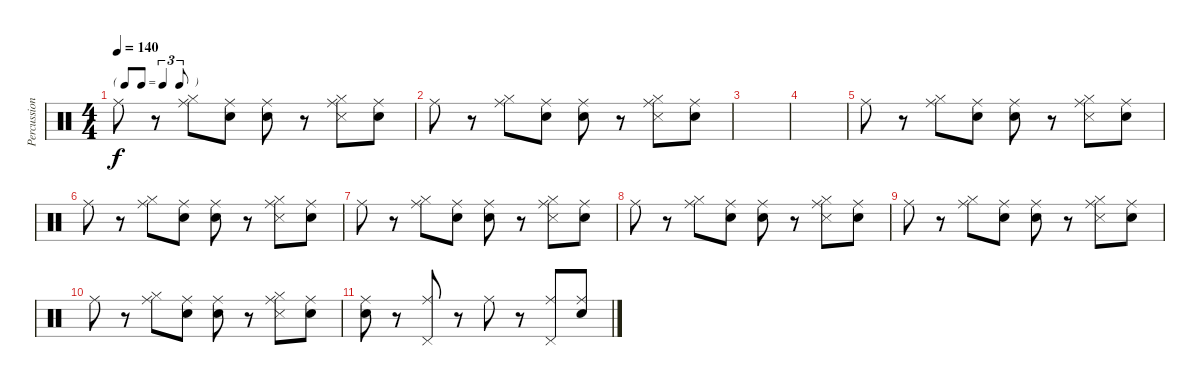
\track ("Percussions" "Percussion") {instrument percussion}
\staff {score}
\articulation defaults
\ts (4 4)
\tf triplet8th
\tempo 140
\clef neutral
\ks c "Ride (middle)".8{dy f}
r.8 ("Hi-Hat (closed)" "Ride (middle)").8 ("Snare (hit)" "Ride (middle)").8 ("Snare (hit)" "Ride (middle)").8 r.8 ("Hi-Hat (closed)" "Snare (side stick) 3" "Ride (middle)").8 ("Snare (hit)" "Ride (middle)").8 |
"Ride (middle)".8 r.8 ("Hi-Hat (closed)" "Ride (middle)").8 ("Snare (hit)" "Ride (middle)").8 ("Snare (hit)" "Ride (middle)").8 r.8 ("Hi-Hat (closed)" "Snare (side stick) 3" "Ride (middle)").8 ("Snare (hit)" "Ride (middle)").8 |
|
|
"Ride (middle)".8 r.8 ("Hi-Hat (closed)" "Ride (middle)").8 ("Snare (hit)" "Ride (middle)").8 ("Snare (hit)" "Ride (middle)").8 r.8 ("Hi-Hat (closed)" "Snare (side stick) 3" "Ride (middle)").8 ("Snare (hit)" "Ride (middle)").8 |
"Ride (middle)".8 r.8 ("Hi-Hat (closed)" "Ride (middle)").8 ("Snare (hit)" "Ride (middle)").8 ("Snare (hit)" "Ride (middle)").8 r.8 ("Hi-Hat (closed)" "Snare (side stick) 3" "Ride (middle)").8 ("Snare (hit)" "Ride (middle)").8 |
"Ride (middle)".8 r.8 ("Hi-Hat (closed)" "Ride (middle)").8 ("Snare (hit)" "Ride (middle)").8 ("Snare (hit)" "Ride (middle)").8 r.8 ("Hi-Hat (closed)" "Snare (side stick) 3" "Ride (middle)").8 ("Snare (hit)" "Ride (middle)").8 |
"Ride (middle)".8 r.8 ("Hi-Hat (closed)" "Ride (middle)").8 ("Snare (hit)" "Ride (middle)").8 ("Snare (hit)" "Ride (middle)").8 r.8 ("Hi-Hat (closed)" "Snare (side stick) 3" "Ride (middle)").8 ("Snare (hit)" "Ride (middle)").8 |
"Ride (middle)".8 r.8 ("Hi-Hat (closed)" "Ride (middle)").8 ("Snare (hit)" "Ride (middle)").8 ("Snare (hit)" "Ride (middle)").8 r.8 ("Hi-Hat (closed)" "Snare (side stick) 3" "Ride (middle)").8 ("Snare (hit)" "Ride (middle)").8 |
"Ride (middle)".8 r.8 ("Hi-Hat (closed)" "Ride (middle)").8 ("Snare (hit)" "Ride (middle)").8 ("Snare (hit)" "Ride (middle)").8 r.8 ("Hi-Hat (closed)" "Snare (side stick) 3" "Ride (middle)").8 ("Snare (hit)" "Ride (middle)").8 |
("Snare (hit)" "Ride (middle)").8 r.8 ("Pedal Hi-Hat (hit)" "Ride (middle)").8 r.8 "Ride (middle)".8 r.8 ("Pedal Hi-Hat (hit)" "Ride (middle)").8 ("Snare (hit)" "Ride (middle)").8
